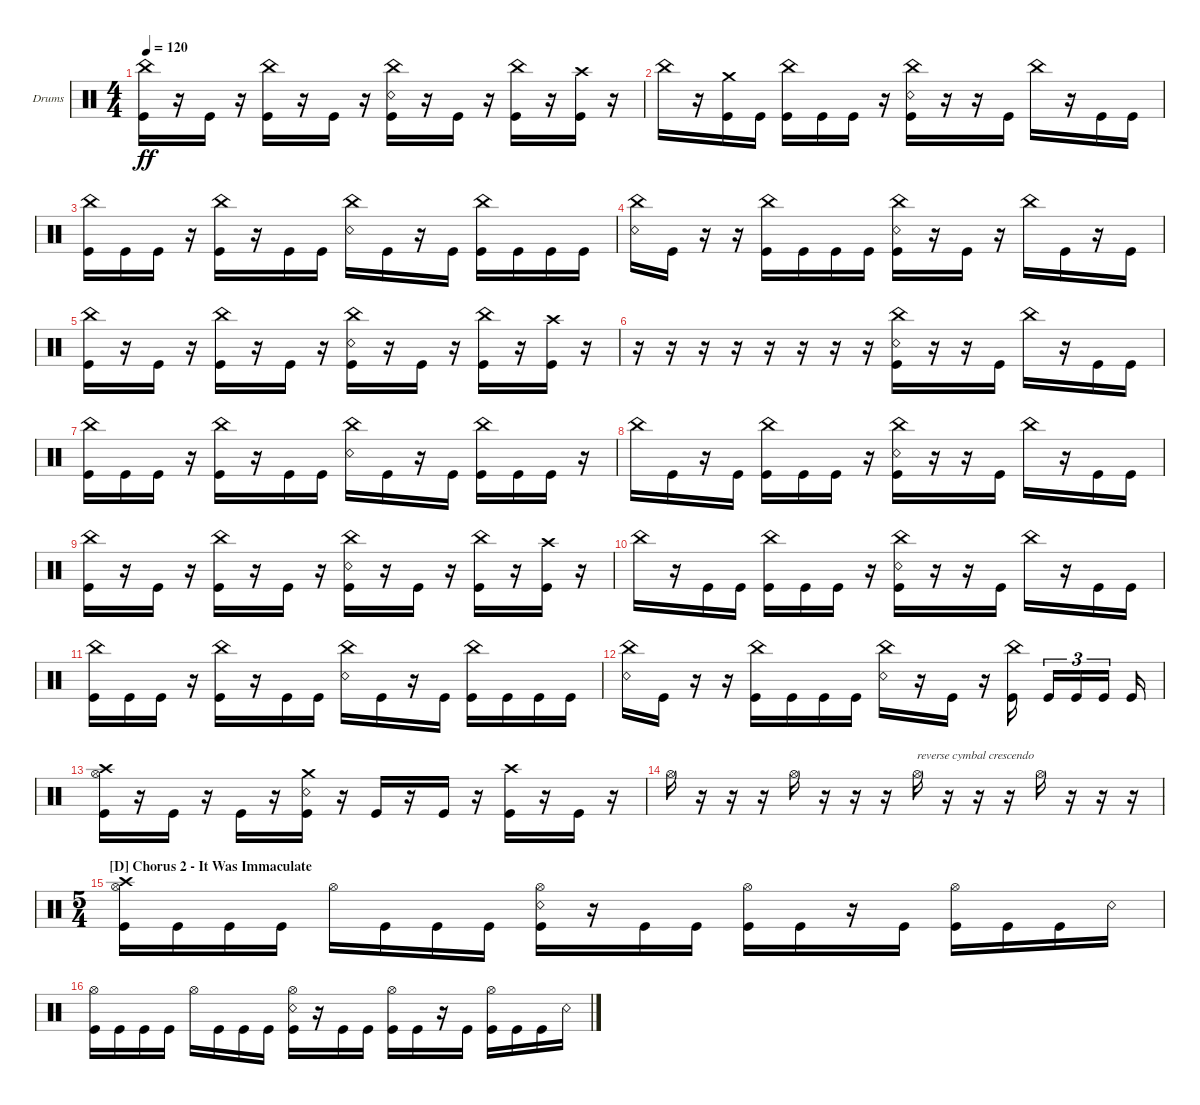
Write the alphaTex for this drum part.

\defaultSystemsLayout 4
\bracketExtendMode groupsimilarinstruments
\firstSystemTrackNameOrientation horizontal
\otherSystemsTrackNameOrientation horizontal
\track ("Drumkit" "Drums") {instrument percussion}
\staff {score}
\articulation defaults
\ts (4 4)
\tempo 120
\clef neutral
\ks c
("China (hit)" "Kick (hit)").16{dy ff} r.16 "Kick (hit)".16 r.16 ("China (hit)" "Kick (hit)").16 r.16 "Kick (hit)".16 r.16 ("China (hit)" "Snare (rim shot)" "Kick (hit)").16 r.16 "Kick (hit)".16 r.16 ("China (hit)" "Kick (hit)").16 r.16 ("Kick (hit)" "Crash high (hit)").16 r.16 |
"China (hit)".16 r.16 ("Crash medium (hit)" "Kick (hit)").16 "Kick (hit)".16 ("China (hit)" "Kick (hit)").16 "Kick (hit)".16 "Kick (hit)".16 r.16 ("China (hit)" "Snare (rim shot)" "Kick (hit)").16 r.16 r.16 "Kick (hit)".16 "China (hit)".16 r.16 "Kick (hit)".16 "Kick (hit)".16 |
("China (hit)" "Kick (hit)").16 "Kick (hit)".16 "Kick (hit)".16 r.16 ("China (hit)" "Kick (hit)").16 r.16 "Kick (hit)".16 "Kick (hit)".16 ("China (hit)" "Snare (rim shot)").16 "Kick (hit)".16 r.16 "Kick (hit)".16 ("China (hit)" "Kick (hit)").16 "Kick (hit)".16 "Kick (hit)".16 "Kick (hit)".16 |
("China (hit)" "Snare (rim shot)").16 "Kick (hit)".16 r.16 r.16 ("China (hit)" "Kick (hit)").16 "Kick (hit)".16 "Kick (hit)".16 "Kick (hit)".16 ("China (hit)" "Snare (rim shot)" "Kick (hit)").16 r.16 "Kick (hit)".16 r.16 "China (hit)".16 "Kick (hit)".16 r.16 "Kick (hit)".16 |
("China (hit)" "Kick (hit)").16 r.16 "Kick (hit)".16 r.16 ("China (hit)" "Kick (hit)").16 r.16 "Kick (hit)".16 r.16 ("China (hit)" "Kick (hit)" "Snare (rim shot)").16 r.16 "Kick (hit)".16 r.16 ("China (hit)" "Kick (hit)").16 r.16 ("Kick (hit)" "Crash high (hit)").16 r.16 |
r.16 r.16 r.16 r.16 r.16 r.16 r.16 r.16 ("China (hit)" "Snare (rim shot)" "Kick (hit)").16 r.16 r.16 "Kick (hit)".16 "China (hit)".16 r.16 "Kick (hit)".16 "Kick (hit)".16 |
("China (hit)" "Kick (hit)").16 "Kick (hit)".16 "Kick (hit)".16 r.16 ("China (hit)" "Kick (hit)").16 r.16 "Kick (hit)".16 "Kick (hit)".16 ("China (hit)" "Snare (rim shot)").16 "Kick (hit)".16 r.16 "Kick (hit)".16 ("China (hit)" "Kick (hit)").16 "Kick (hit)".16 "Kick (hit)".16 r.16 |
"China (hit)".16 "Kick (hit)".16 r.16 "Kick (hit)".16 ("China (hit)" "Kick (hit)").16 "Kick (hit)".16 "Kick (hit)".16 r.16 ("China (hit)" "Snare (rim shot)" "Kick (hit)").16 r.16 r.16 "Kick (hit)".16 "China (hit)".16 r.16 "Kick (hit)".16 "Kick (hit)".16 |
("China (hit)" "Kick (hit)").16 r.16 "Kick (hit)".16 r.16 ("China (hit)" "Kick (hit)").16 r.16 "Kick (hit)".16 r.16 ("China (hit)" "Snare (rim shot)" "Kick (hit)").16 r.16 "Kick (hit)".16 r.16 ("China (hit)" "Kick (hit)").16 r.16 ("Crash high (hit)" "Kick (hit)").16 r.16 |
"China (hit)".16 r.16 "Kick (hit)".16 "Kick (hit)".16 ("China (hit)" "Kick (hit)").16 "Kick (hit)".16 "Kick (hit)".16 r.16 ("China (hit)" "Snare (rim shot)" "Kick (hit)").16 r.16 r.16 "Kick (hit)".16 "China (hit)".16 r.16 "Kick (hit)".16 "Kick (hit)".16 |
("China (hit)" "Kick (hit)").16 "Kick (hit)".16 "Kick (hit)".16 r.16 ("China (hit)" "Kick (hit)").16 r.16 "Kick (hit)".16 "Kick (hit)".16 ("China (hit)" "Snare (rim shot)").16 "Kick (hit)".16 r.16 "Kick (hit)".16 ("China (hit)" "Kick (hit)").16 "Kick (hit)".16 "Kick (hit)".16 "Kick (hit)".16 |
("Snare (rim shot)" "China (hit)").16 "Kick (hit)".16 r.16 r.16 ("Kick (hit)" "China (hit)").16 "Kick (hit)".16 "Kick (hit)".16 "Kick (hit)".16 ("Snare (rim shot)" "China (hit)").16 r.16 "Kick (hit)".16 r.16 ("China (hit)" "Kick (hit)").16 "Kick (hit)".16{tu (3 2)} "Kick (hit)".16{tu (3 2)} "Kick (hit)".16{tu (3 2)} "Kick (hit)".16 |
("Hi-Hat (open)" "Crash high (hit)" "Kick (hit)").16 r.16 "Kick (hit)".16 r.16 "Kick (hit)".16 r.16 ("Crash medium (hit)" "Kick (hit)" "Snare (rim shot)").16 r.16 "Kick (hit)".16 r.16 "Kick (hit)".16 r.16 ("Crash high (hit)" "Kick (hit)").16 r.16 "Kick (hit)".16 r.16 |
"Hi-Hat (open)".16 r.16 r.16 r.16 "Hi-Hat (open)".16 r.16 r.16 r.16 "Hi-Hat (open)".16{txt "reverse cymbal crescendo"} r.16 r.16 r.16 "Hi-Hat (open)".16 r.16 r.16 r.16 |
\ts (5 4)
\section ("D" "Chorus 2 - It Was Immaculate")
("Crash high (hit)" "Hi-Hat (open)" "Kick (hit)").16 "Kick (hit)".16 "Kick (hit)".16 "Kick (hit)".16 "Hi-Hat (open)".16 "Kick (hit)".16 "Kick (hit)".16 "Kick (hit)".16 ("Hi-Hat (open)" "Snare (rim shot)" "Kick (hit)").16 r.16 "Kick (hit)".16 "Kick (hit)".16 ("Hi-Hat (open)" "Kick (hit)").16 "Kick (hit)".16 r.16 "Kick (hit)".16 ("Hi-Hat (open)" "Kick (hit)").16 "Kick (hit)".16 "Kick (hit)".16 "Snare (rim shot)".16 |
("Hi-Hat (open)" "Kick (hit)").16 "Kick (hit)".16 "Kick (hit)".16 "Kick (hit)".16 "Hi-Hat (open)".16 "Kick (hit)".16 "Kick (hit)".16 "Kick (hit)".16 ("Hi-Hat (open)" "Snare (rim shot)" "Kick (hit)").16 r.16 "Kick (hit)".16 "Kick (hit)".16 ("Hi-Hat (open)" "Kick (hit)").16 "Kick (hit)".16 r.16 "Kick (hit)".16 ("Hi-Hat (open)" "Kick (hit)").16 "Kick (hit)".16 "Kick (hit)".16 "Snare (rim shot)".16
